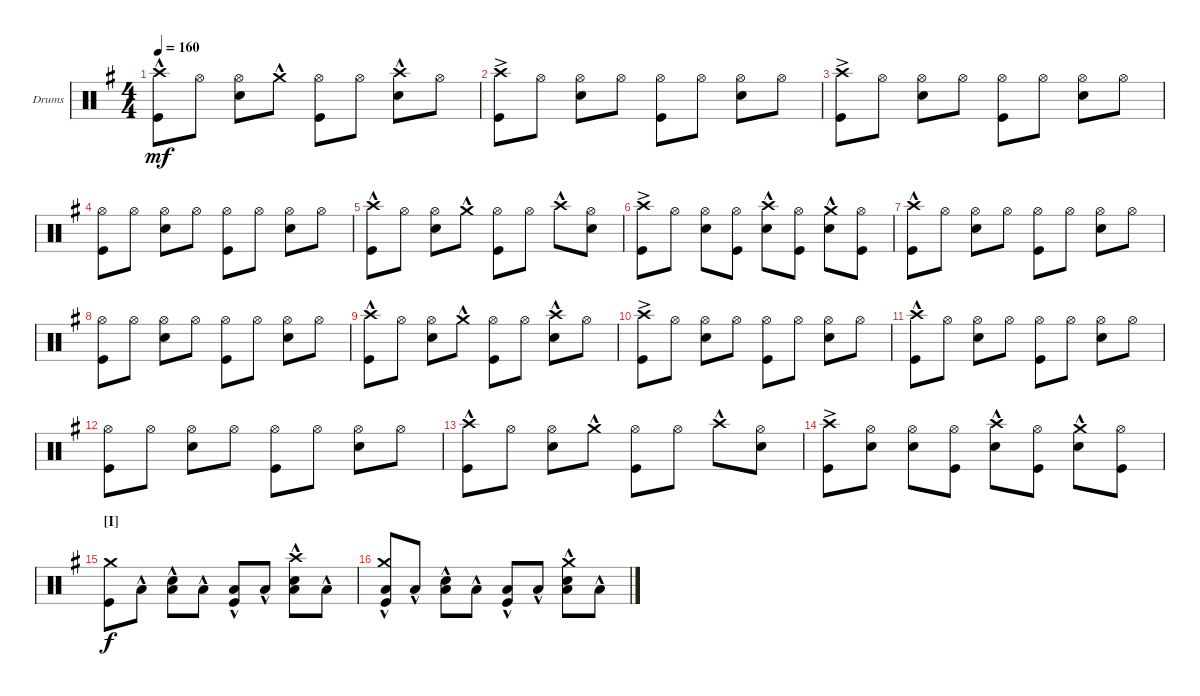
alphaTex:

\defaultSystemsLayout 4
\bracketExtendMode groupsimilarinstruments
\firstSystemTrackNameOrientation horizontal
\otherSystemsTrackNameOrientation horizontal
\track ("Drumkit" "Drums") {instrument percussion}
\staff {score}
\articulation defaults
\ts (4 4)
\tempo 160
\clef neutral
\ks eminor
("Kick (hit)" "Crash high (hit)"{hac}).8{dy mf} "Hi-Hat (open)".8 ("Hi-Hat (open)" "Snare (hit) 2").8 "Crash medium (hit)"{hac}.8 ("Hi-Hat (open)" "Kick (hit)").8 "Hi-Hat (open)".8 ("Crash high (hit)"{hac} "Snare (hit) 2").8 "Hi-Hat (open)".8 |
("Kick (hit)" "Crash high (hit)"{ac}).8 "Hi-Hat (open)".8 ("Hi-Hat (open)" "Snare (hit) 2").8 "Hi-Hat (open)".8 ("Hi-Hat (open)" "Kick (hit)").8 "Hi-Hat (open)".8 ("Hi-Hat (open)" "Snare (hit) 2").8 "Hi-Hat (open)".8 |
\scale
0.307692 ("Kick (hit)" "Crash high (hit)"{ac}).8 "Hi-Hat (open)".8 ("Hi-Hat (open)" "Snare (hit) 2").8 "Hi-Hat (open)".8 ("Hi-Hat (open)" "Kick (hit)").8 "Hi-Hat (open)".8 ("Hi-Hat (open)" "Snare (hit) 2").8 "Hi-Hat (open)".8 |
\scale
0.239769 ("Hi-Hat (open)" "Kick (hit)").8 "Hi-Hat (open)".8 ("Hi-Hat (open)" "Snare (hit) 2").8 "Hi-Hat (open)".8 ("Hi-Hat (open)" "Kick (hit)").8 "Hi-Hat (open)".8 ("Hi-Hat (open)" "Snare (hit) 2").8 "Hi-Hat (open)".8 |
\scale
0.222169 ("Kick (hit)" "Crash high (hit)"{hac}).8 "Hi-Hat (open)".8 ("Hi-Hat (open)" "Snare (hit) 2").8 "Crash medium (hit)"{hac}.8 ("Hi-Hat (open)" "Kick (hit)").8 "Hi-Hat (open)".8 "Crash high (hit)"{hac}.8 ("Hi-Hat (open)" "Snare (hit) 2").8 |
\scale
0.230769 ("Kick (hit)" "Crash high (hit)"{ac}).8 "Hi-Hat (open)".8 ("Hi-Hat (open)" "Snare (hit) 2").8 ("Hi-Hat (open)" "Kick (hit)").8 ("Snare (hit) 2" "Crash high (hit)"{hac}).8 ("Hi-Hat (open)" "Kick (hit)").8 ("Snare (hit) 2" "Crash medium (hit)"{hac}).8 ("Hi-Hat (open)" "Kick (hit)").8 |
("Kick (hit)" "Crash high (hit)"{hac}).8 "Hi-Hat (open)".8 ("Hi-Hat (open)" "Snare (hit) 2").8 "Hi-Hat (open)".8 ("Hi-Hat (open)" "Kick (hit)").8 "Hi-Hat (open)".8 ("Hi-Hat (open)" "Snare (hit) 2").8 "Hi-Hat (open)".8 |
("Hi-Hat (open)" "Kick (hit)").8 "Hi-Hat (open)".8 ("Hi-Hat (open)" "Snare (hit) 2").8 "Hi-Hat (open)".8 ("Hi-Hat (open)" "Kick (hit)").8 "Hi-Hat (open)".8 ("Hi-Hat (open)" "Snare (hit) 2").8 "Hi-Hat (open)".8 |
("Kick (hit)" "Crash high (hit)"{hac}).8 "Hi-Hat (open)".8 ("Hi-Hat (open)" "Snare (hit) 2").8 "Crash medium (hit)"{hac}.8 ("Hi-Hat (open)" "Kick (hit)").8 "Hi-Hat (open)".8 ("Crash high (hit)"{hac} "Snare (hit) 2").8 "Hi-Hat (open)".8 |
("Kick (hit)" "Crash high (hit)"{ac}).8 "Hi-Hat (open)".8 ("Hi-Hat (open)" "Snare (hit) 2").8 "Hi-Hat (open)".8 ("Hi-Hat (open)" "Kick (hit)").8 "Hi-Hat (open)".8 ("Hi-Hat (open)" "Snare (hit) 2").8 "Hi-Hat (open)".8 |
\scale
0.307692 ("Kick (hit)" "Crash high (hit)"{hac}).8 "Hi-Hat (open)".8 ("Hi-Hat (open)" "Snare (hit) 2").8 "Hi-Hat (open)".8 ("Hi-Hat (open)" "Kick (hit)").8 "Hi-Hat (open)".8 ("Hi-Hat (open)" "Snare (hit) 2").8 "Hi-Hat (open)".8 |
\scale
0.239769 ("Hi-Hat (open)" "Kick (hit)").8 "Hi-Hat (open)".8 ("Hi-Hat (open)" "Snare (hit) 2").8 "Hi-Hat (open)".8 ("Hi-Hat (open)" "Kick (hit)").8 "Hi-Hat (open)".8 ("Hi-Hat (open)" "Snare (hit) 2").8 "Hi-Hat (open)".8 |
\scale
0.222169 ("Kick (hit)" "Crash high (hit)"{hac}).8 "Hi-Hat (open)".8 ("Hi-Hat (open)" "Snare (hit) 2").8 "Crash medium (hit)"{hac}.8 ("Hi-Hat (open)" "Kick (hit)").8 "Hi-Hat (open)".8 "Crash high (hit)"{hac}.8 ("Hi-Hat (open)" "Snare (hit) 2").8 |
\scale
0.230769 ("Kick (hit)" "Crash high (hit)"{ac}).8 ("Hi-Hat (open)" "Snare (hit) 2").8 ("Hi-Hat (open)" "Snare (hit) 2").8 ("Hi-Hat (open)" "Kick (hit)").8 ("Snare (hit) 2" "Crash high (hit)"{hac}).8 ("Hi-Hat (open)" "Kick (hit)").8 ("Snare (hit) 2" "Crash medium (hit)"{hac}).8 ("Hi-Hat (open)" "Kick (hit)").8 |
\section ("I" "")
("Kick (hit)" "Crash medium (hit)").8{dy f} "Low Tom (hit)"{hac}.8 ("Snare (hit) 2" "Low Tom (hit)"{hac}).8 "Low Tom (hit)"{hac}.8 ("Kick (hit)" "Low Tom (hit)"{hac}).8 "Low Tom (hit)"{hac}.8 ("Snare (hit) 2" "Low Tom (hit)"{hac} "Crash high (hit)").8 "Low Tom (hit)"{hac}.8 |
("Kick (hit)" "Low Tom (hit)"{hac} "Crash medium (hit)").8 "Low Tom (hit)"{hac}.8 ("Snare (hit) 2" "Low Tom (hit)"{hac}).8 "Low Tom (hit)"{hac}.8 ("Kick (hit)" "Low Tom (hit)"{hac}).8 "Low Tom (hit)"{hac}.8 ("Snare (hit) 2" "Low Tom (hit)"{hac} "Crash medium (hit)").8 "Low Tom (hit)"{hac}.8
